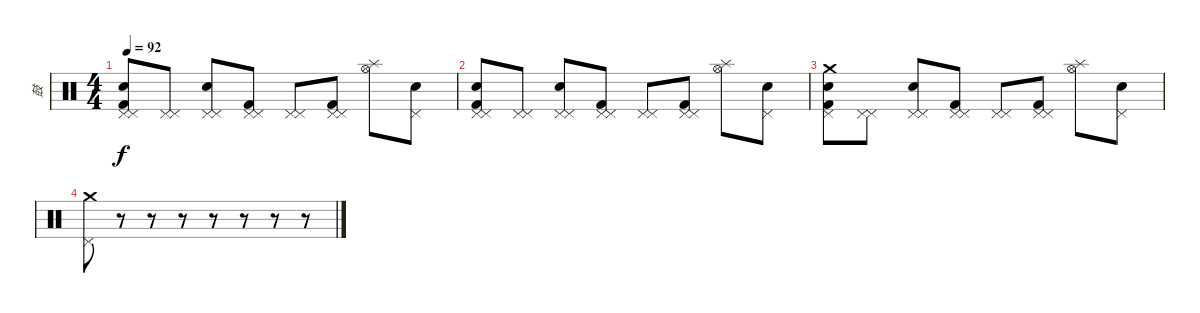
\track ("鼓" "鼓") {instrument percussion}
\staff {score}
\articulation defaults
\ts (4 4)
\tempo 92
\clef neutral
\ks c
("Pedal Hi-Hat (hit)" "Pedal Hi-Hat (hit)" "Kick (hit) 2" "Snare (hit) 2").8{dy f} ("Pedal Hi-Hat (hit)" "Pedal Hi-Hat (hit)").8 ("Pedal Hi-Hat (hit)" "Pedal Hi-Hat (hit)" "Electric Snare (hit)").8 ("Pedal Hi-Hat (hit)" "Pedal Hi-Hat (hit)" "Kick (hit) 2").8 ("Pedal Hi-Hat (hit)" "Pedal Hi-Hat (hit)").8 ("Pedal Hi-Hat (hit)" "Pedal Hi-Hat (hit)" "Kick (hit) 2").8 ("Splash (hit)" "Hi-Hat (open)").8 ("Pedal Hi-Hat (hit)" "Electric Snare (hit)").8 |
("Pedal Hi-Hat (hit)" "Pedal Hi-Hat (hit)" "Kick (hit) 2" "Snare (hit) 2").8 ("Pedal Hi-Hat (hit)" "Pedal Hi-Hat (hit)").8 ("Pedal Hi-Hat (hit)" "Pedal Hi-Hat (hit)" "Electric Snare (hit)").8 ("Pedal Hi-Hat (hit)" "Pedal Hi-Hat (hit)" "Kick (hit) 2").8 ("Pedal Hi-Hat (hit)" "Pedal Hi-Hat (hit)").8 ("Pedal Hi-Hat (hit)" "Pedal Hi-Hat (hit)" "Kick (hit) 2").8 ("Splash (hit)" "Hi-Hat (open)").8 ("Pedal Hi-Hat (hit)" "Electric Snare (hit)").8 |
("Crash medium (hit)" "Pedal Hi-Hat (hit)" "Kick (hit) 2" "Snare (hit) 2").8 ("Pedal Hi-Hat (hit)" "Pedal Hi-Hat (hit)").8 ("Pedal Hi-Hat (hit)" "Pedal Hi-Hat (hit)" "Electric Snare (hit)").8 ("Pedal Hi-Hat (hit)" "Pedal Hi-Hat (hit)" "Kick (hit) 2").8 ("Pedal Hi-Hat (hit)" "Pedal Hi-Hat (hit)").8 ("Pedal Hi-Hat (hit)" "Pedal Hi-Hat (hit)" "Kick (hit) 2").8 ("Splash (hit)" "Hi-Hat (open)").8 ("Pedal Hi-Hat (hit)" "Electric Snare (hit)").8 |
("Pedal Hi-Hat (hit)" "Crash medium (hit)").8 r.8 r.8 r.8 r.8 r.8 r.8 r.8
